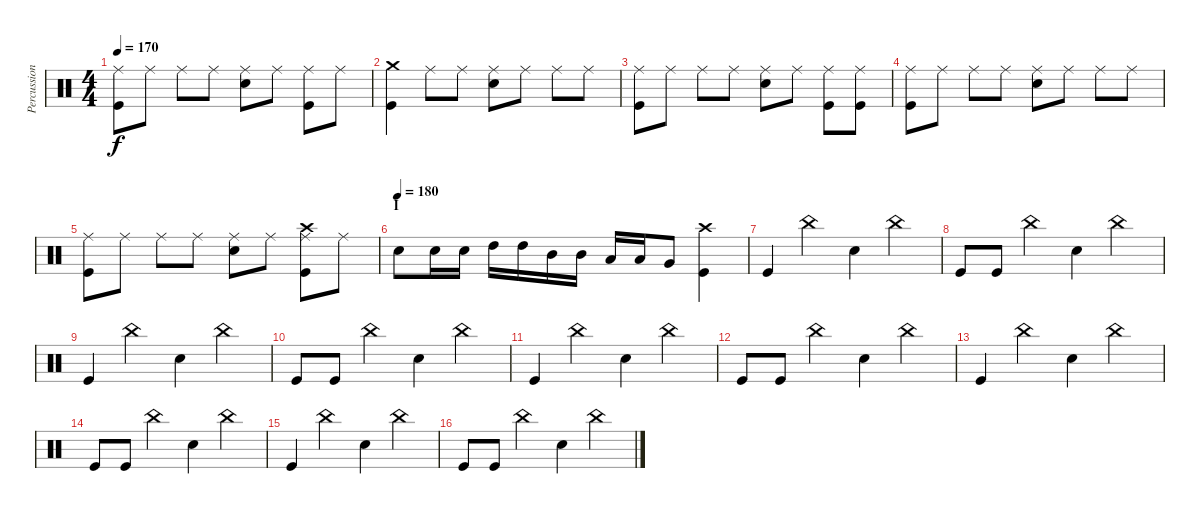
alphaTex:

\track ("Percussion" "Percussion") {instrument percussion}
\staff {score}
\articulation defaults
\ts (4 4)
\tempo 170
\clef neutral
\ks c
("Ride (middle)" "Kick (hit)").8{dy f} "Ride (middle)".8 "Ride (middle)".8 "Ride (middle)".8 ("Ride (middle)" "Electric Snare (hit)").8 "Ride (middle)".8 ("Ride (middle)" "Kick (hit)").8 "Ride (middle)".8 |
("Crash medium (hit)" "Kick (hit)").4 "Ride (middle)".8 "Ride (middle)".8 ("Ride (middle)" "Electric Snare (hit)").8 "Ride (middle)".8 "Ride (middle)".8 "Ride (middle)".8 |
("Ride (middle)" "Kick (hit)").8 "Ride (middle)".8 "Ride (middle)".8 "Ride (middle)".8 ("Ride (middle)" "Electric Snare (hit)").8 "Ride (middle)".8 ("Ride (middle)" "Kick (hit)").8 ("Ride (middle)" "Kick (hit)").8 |
("Ride (middle)" "Kick (hit)").8 "Ride (middle)".8 "Ride (middle)".8 "Ride (middle)".8 ("Ride (middle)" "Electric Snare (hit)").8 "Ride (middle)".8 "Ride (middle)".8 "Ride (middle)".8 |
("Ride (middle)" "Kick (hit)").8 "Ride (middle)".8 "Ride (middle)".8 "Ride (middle)".8 ("Ride (middle)" "Electric Snare (hit)").8 "Ride (middle)".8 ("Crash high (hit)" "Ride (middle)" "Kick (hit)").8 "Ride (middle)".8 |
\section ("" "I")
\tempo (180)
"Electric Snare (hit)".8 "Electric Snare (hit)".16 "Electric Snare (hit)".16 "High Tom (hit)".16 "High Tom (hit)".16 "Mid Tom (hit)".16 "Mid Tom (hit)".16 "Low Tom (hit)".16 "Low Tom (hit)".16 "Very Low Tom (hit)".8 ("Crash high (hit)" "Kick (hit)").4 |
"Kick (hit)".4 "China (hit)".4 "Electric Snare (hit)".4 "China (hit)".4 |
"Kick (hit)".8 "Kick (hit)".8 "China (hit)".4 "Electric Snare (hit)".4 "China (hit)".4 |
"Kick (hit)".4 "China (hit)".4 "Electric Snare (hit)".4 "China (hit)".4 |
"Kick (hit)".8 "Kick (hit)".8 "China (hit)".4 "Electric Snare (hit)".4 "China (hit)".4 |
"Kick (hit)".4 "China (hit)".4 "Electric Snare (hit)".4 "China (hit)".4 |
"Kick (hit)".8 "Kick (hit)".8 "China (hit)".4 "Electric Snare (hit)".4 "China (hit)".4 |
"Kick (hit)".4 "China (hit)".4 "Electric Snare (hit)".4 "China (hit)".4 |
"Kick (hit)".8 "Kick (hit)".8 "China (hit)".4 "Electric Snare (hit)".4 "China (hit)".4 |
"Kick (hit)".4 "China (hit)".4 "Electric Snare (hit)".4 "China (hit)".4 |
"Kick (hit)".8 "Kick (hit)".8 "China (hit)".4 "Electric Snare (hit)".4 "China (hit)".4
